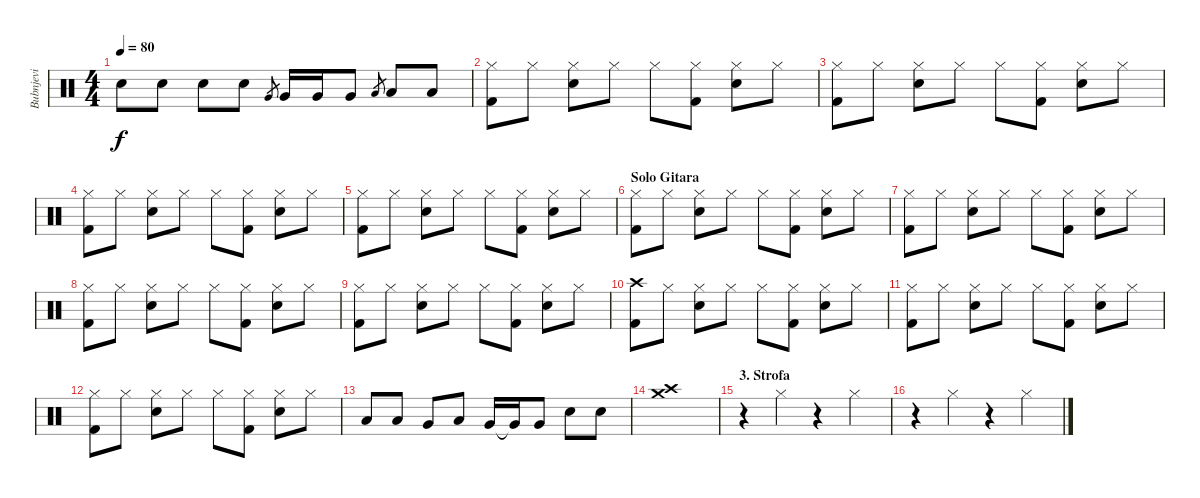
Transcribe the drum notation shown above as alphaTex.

\track ("Bubnjevi" "Bubnjevi") {instrument percussion}
\staff {score}
\articulation defaults
\ts (4 4)
\tempo 80
\clef neutral
\ks c "Electric Snare (hit)".8{dy f} "Electric Snare (hit)".8 "Electric Snare (hit)".8 "Electric Snare (hit)".8 "Very Low Tom (hit)".8{gr} "Very Low Tom (hit)".16 "Very Low Tom (hit)".16 "Very Low Tom (hit)".8 "Low Tom (hit)".8{gr} "Low Tom (hit)".8 "Low Tom (hit)".8
|
("Hi-Hat (closed)" "Kick (hit) 2").8 "Hi-Hat (closed)".8 ("Hi-Hat (closed)" "Electric Snare (hit)").8 "Hi-Hat (closed)".8 "Hi-Hat (closed)".8 ("Hi-Hat (closed)" "Kick (hit) 2").8 ("Hi-Hat (closed)" "Electric Snare (hit)").8 "Hi-Hat (closed)".8 |
("Hi-Hat (closed)" "Kick (hit) 2").8 "Hi-Hat (closed)".8 ("Hi-Hat (closed)" "Electric Snare (hit)").8 "Hi-Hat (closed)".8 "Hi-Hat (closed)".8 ("Hi-Hat (closed)" "Kick (hit) 2").8 ("Hi-Hat (closed)" "Electric Snare (hit)").8 "Hi-Hat (closed)".8 |
("Hi-Hat (closed)" "Kick (hit) 2").8 "Hi-Hat (closed)".8 ("Hi-Hat (closed)" "Electric Snare (hit)").8 "Hi-Hat (closed)".8 "Hi-Hat (closed)".8 ("Hi-Hat (closed)" "Kick (hit) 2").8 ("Hi-Hat (closed)" "Electric Snare (hit)").8 "Hi-Hat (closed)".8 |
("Hi-Hat (closed)" "Kick (hit) 2").8 "Hi-Hat (closed)".8 ("Hi-Hat (closed)" "Electric Snare (hit)").8 "Hi-Hat (closed)".8 "Hi-Hat (closed)".8 ("Hi-Hat (closed)" "Kick (hit) 2").8 ("Hi-Hat (closed)" "Electric Snare (hit)").8 "Hi-Hat (closed)".8 |
\section ("" "Solo Gitara")
("Hi-Hat (closed)" "Kick (hit) 2").8 "Hi-Hat (closed)".8 ("Hi-Hat (closed)" "Electric Snare (hit)").8 "Hi-Hat (closed)".8 "Hi-Hat (closed)".8 ("Hi-Hat (closed)" "Kick (hit) 2").8 ("Hi-Hat (closed)" "Electric Snare (hit)").8 "Hi-Hat (closed)".8 |
("Hi-Hat (closed)" "Kick (hit) 2").8 "Hi-Hat (closed)".8 ("Hi-Hat (closed)" "Electric Snare (hit)").8 "Hi-Hat (closed)".8 "Hi-Hat (closed)".8 ("Hi-Hat (closed)" "Kick (hit) 2").8 ("Hi-Hat (closed)" "Electric Snare (hit)").8 "Hi-Hat (closed)".8 |
("Hi-Hat (closed)" "Kick (hit) 2").8 "Hi-Hat (closed)".8 ("Hi-Hat (closed)" "Electric Snare (hit)").8 "Hi-Hat (closed)".8 "Hi-Hat (closed)".8 ("Hi-Hat (closed)" "Kick (hit) 2").8 ("Hi-Hat (closed)" "Electric Snare (hit)").8 "Hi-Hat (closed)".8 |
("Hi-Hat (closed)" "Kick (hit) 2").8 "Hi-Hat (closed)".8 ("Hi-Hat (closed)" "Electric Snare (hit)").8 "Hi-Hat (closed)".8 "Hi-Hat (closed)".8 ("Hi-Hat (closed)" "Kick (hit) 2").8 ("Hi-Hat (closed)" "Electric Snare (hit)").8 "Hi-Hat (closed)".8 |
("Crash high (hit)" "Kick (hit) 2").8 "Hi-Hat (closed)".8 ("Hi-Hat (closed)" "Electric Snare (hit)").8 "Hi-Hat (closed)".8 "Hi-Hat (closed)".8 ("Hi-Hat (closed)" "Kick (hit) 2").8 ("Hi-Hat (closed)" "Electric Snare (hit)").8 "Hi-Hat (closed)".8 |
("Hi-Hat (closed)" "Kick (hit) 2").8 "Hi-Hat (closed)".8 ("Hi-Hat (closed)" "Electric Snare (hit)").8 "Hi-Hat (closed)".8 "Hi-Hat (closed)".8 ("Hi-Hat (closed)" "Kick (hit) 2").8 ("Hi-Hat (closed)" "Electric Snare (hit)").8 "Hi-Hat (closed)".8 |
("Hi-Hat (closed)" "Kick (hit) 2").8 "Hi-Hat (closed)".8 ("Hi-Hat (closed)" "Electric Snare (hit)").8 "Hi-Hat (closed)".8 "Hi-Hat (closed)".8 ("Hi-Hat (closed)" "Kick (hit) 2").8 ("Hi-Hat (closed)" "Electric Snare (hit)").8 "Hi-Hat (closed)".8 |
"Low Tom (hit)".8 "Low Tom (hit)".8 "Very Low Tom (hit)".8 "Low Floor Tom (hit)".8 "Very Low Tom (hit)".16 "Very Low Tom (hit)"{t}.16 "Very Low Tom (hit)".8 "Electric Snare (hit)".8 "Electric Snare (hit)".8 |
("Crash high (hit)" "Crash medium (hit)").1 |
\section ("" "3. Strofa")
r.4 "Hi-Hat (closed)".4 r.4 "Hi-Hat (closed)".4 |
r.4 "Hi-Hat (closed)".4 r.4 "Hi-Hat (closed)".4
